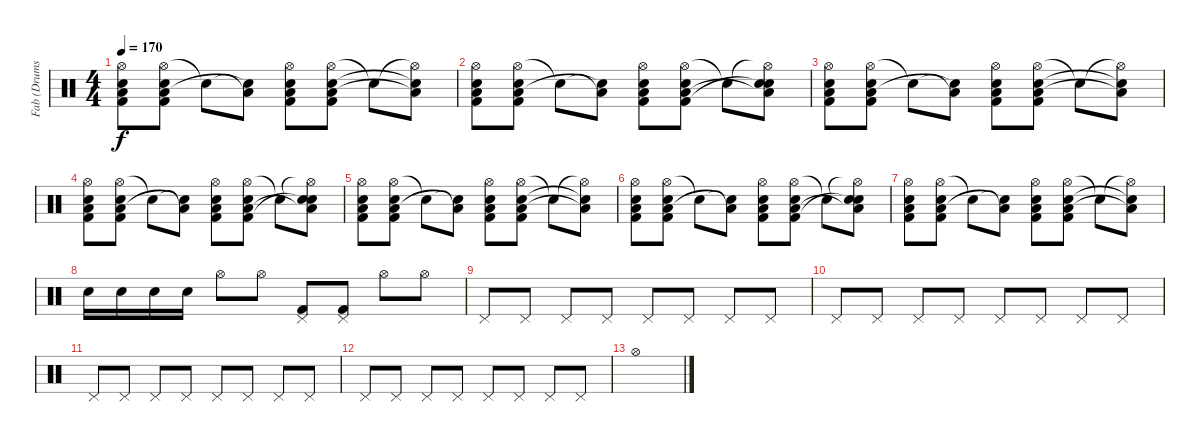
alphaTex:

\track ("Fab (Drums)" "Fab (Drums") {instrument percussion}
\staff {score}
\articulation defaults
\ts (4 4)
\tempo 170
\clef neutral
\ks c
("Hi-Hat (open)" "Low Floor Tom (hit)" "Electric Snare (hit)" "Kick (hit) 2").8{dy f} ("Hi-Hat (open)" "Low Floor Tom (hit)" "Electric Snare (hit)" "Kick (hit) 2").8 "Snare (hit)"{t}.8 ("Low Floor Tom (hit)"{t} "Snare (hit)"{t}).8 ("Hi-Hat (open)" "Low Floor Tom (hit)" "Electric Snare (hit)" "Kick (hit) 2").8 ("Hi-Hat (open)" "Low Floor Tom (hit)" "Electric Snare (hit)" "Kick (hit) 2").8 "Snare (hit)"{t}.8 ("Hi-Hat (open)"{t} "Low Floor Tom (hit)"{t} "Snare (hit)"{t}).8 |
("Hi-Hat (open)" "Low Floor Tom (hit)" "Electric Snare (hit)" "Kick (hit) 2").8 ("Hi-Hat (open)" "Low Floor Tom (hit)" "Electric Snare (hit)" "Kick (hit) 2").8 "Snare (hit)"{t}.8 ("Low Floor Tom (hit)"{t} "Snare (hit)"{t}).8 ("Hi-Hat (open)" "Low Floor Tom (hit)" "Electric Snare (hit)" "Kick (hit) 2").8 ("Hi-Hat (open)" "Low Floor Tom (hit)" "Electric Snare (hit)" "Kick (hit) 2").8 "Snare (hit)"{t}.8 ("Hi-Hat (open)"{t} "Low Floor Tom (hit)"{t} "Electric Snare (hit)" "Snare (hit)"{t}).8 |
("Hi-Hat (open)" "Low Floor Tom (hit)" "Electric Snare (hit)" "Kick (hit) 2").8 ("Hi-Hat (open)" "Low Floor Tom (hit)" "Electric Snare (hit)" "Kick (hit) 2").8 "Snare (hit)"{t}.8 ("Low Floor Tom (hit)"{t} "Snare (hit)"{t}).8 ("Hi-Hat (open)" "Low Floor Tom (hit)" "Electric Snare (hit)" "Kick (hit) 2").8 ("Hi-Hat (open)" "Low Floor Tom (hit)" "Electric Snare (hit)" "Kick (hit) 2").8 "Snare (hit)"{t}.8 ("Hi-Hat (open)"{t} "Low Floor Tom (hit)"{t} "Snare (hit)"{t}).8 |
("Hi-Hat (open)" "Low Floor Tom (hit)" "Electric Snare (hit)" "Kick (hit) 2").8 ("Hi-Hat (open)" "Low Floor Tom (hit)" "Electric Snare (hit)" "Kick (hit) 2").8 "Snare (hit)"{t}.8 ("Low Floor Tom (hit)"{t} "Snare (hit)"{t}).8 ("Hi-Hat (open)" "Low Floor Tom (hit)" "Electric Snare (hit)" "Kick (hit) 2").8 ("Hi-Hat (open)" "Low Floor Tom (hit)" "Electric Snare (hit)" "Kick (hit) 2").8 "Snare (hit)"{t}.8 ("Hi-Hat (open)"{t} "Low Floor Tom (hit)"{t} "Electric Snare (hit)" "Snare (hit)"{t}).8 |
("Hi-Hat (open)" "Low Floor Tom (hit)" "Electric Snare (hit)" "Kick (hit) 2").8 ("Hi-Hat (open)" "Low Floor Tom (hit)" "Electric Snare (hit)" "Kick (hit) 2").8 "Snare (hit)"{t}.8 ("Low Floor Tom (hit)"{t} "Snare (hit)"{t}).8 ("Hi-Hat (open)" "Low Floor Tom (hit)" "Electric Snare (hit)" "Kick (hit) 2").8 ("Hi-Hat (open)" "Low Floor Tom (hit)" "Electric Snare (hit)" "Kick (hit) 2").8 "Snare (hit)"{t}.8 ("Hi-Hat (open)"{t} "Low Floor Tom (hit)"{t} "Snare (hit)"{t}).8 |
("Hi-Hat (open)" "Low Floor Tom (hit)" "Electric Snare (hit)" "Kick (hit) 2").8 ("Hi-Hat (open)" "Low Floor Tom (hit)" "Electric Snare (hit)" "Kick (hit) 2").8 "Snare (hit)"{t}.8 ("Low Floor Tom (hit)"{t} "Snare (hit)"{t}).8 ("Hi-Hat (open)" "Low Floor Tom (hit)" "Electric Snare (hit)" "Kick (hit) 2").8 ("Hi-Hat (open)" "Low Floor Tom (hit)" "Electric Snare (hit)" "Kick (hit) 2").8 "Snare (hit)"{t}.8 ("Hi-Hat (open)"{t} "Low Floor Tom (hit)"{t} "Electric Snare (hit)" "Snare (hit)"{t}).8 |
("Hi-Hat (open)" "Low Floor Tom (hit)" "Electric Snare (hit)" "Kick (hit) 2").8 ("Hi-Hat (open)" "Low Floor Tom (hit)" "Electric Snare (hit)" "Kick (hit) 2").8 "Snare (hit)"{t}.8 ("Low Floor Tom (hit)"{t} "Snare (hit)"{t}).8 ("Hi-Hat (open)" "Low Floor Tom (hit)" "Electric Snare (hit)" "Kick (hit) 2").8 ("Hi-Hat (open)" "Low Floor Tom (hit)" "Electric Snare (hit)" "Kick (hit) 2").8 "Snare (hit)"{t}.8 ("Hi-Hat (open)"{t} "Low Floor Tom (hit)"{t} "Snare (hit)"{t}).8 |
"Electric Snare (hit)".16 "Electric Snare (hit)".16 "Electric Snare (hit)".16 "Electric Snare (hit)".16 "Hi-Hat (open)".8 "Hi-Hat (open)".8 ("Pedal Hi-Hat (hit)" "Kick (hit) 2").8 ("Pedal Hi-Hat (hit)" "Kick (hit) 2").8 "Hi-Hat (open)".8 "Hi-Hat (open)".8 |
"Pedal Hi-Hat (hit)".8 "Pedal Hi-Hat (hit)".8 "Pedal Hi-Hat (hit)".8 "Pedal Hi-Hat (hit)".8 "Pedal Hi-Hat (hit)".8 "Pedal Hi-Hat (hit)".8 "Pedal Hi-Hat (hit)".8 "Pedal Hi-Hat (hit)".8 |
"Pedal Hi-Hat (hit)".8 "Pedal Hi-Hat (hit)".8 "Pedal Hi-Hat (hit)".8 "Pedal Hi-Hat (hit)".8 "Pedal Hi-Hat (hit)".8 "Pedal Hi-Hat (hit)".8 "Pedal Hi-Hat (hit)".8 "Pedal Hi-Hat (hit)".8 |
"Pedal Hi-Hat (hit)".8 "Pedal Hi-Hat (hit)".8 "Pedal Hi-Hat (hit)".8 "Pedal Hi-Hat (hit)".8 "Pedal Hi-Hat (hit)".8 "Pedal Hi-Hat (hit)".8 "Pedal Hi-Hat (hit)".8 "Pedal Hi-Hat (hit)".8 |
"Pedal Hi-Hat (hit)".8 "Pedal Hi-Hat (hit)".8 "Pedal Hi-Hat (hit)".8 "Pedal Hi-Hat (hit)".8 "Pedal Hi-Hat (hit)".8 "Pedal Hi-Hat (hit)".8 "Pedal Hi-Hat (hit)".8 "Pedal Hi-Hat (hit)".8 |
"Hi-Hat (open)".1
